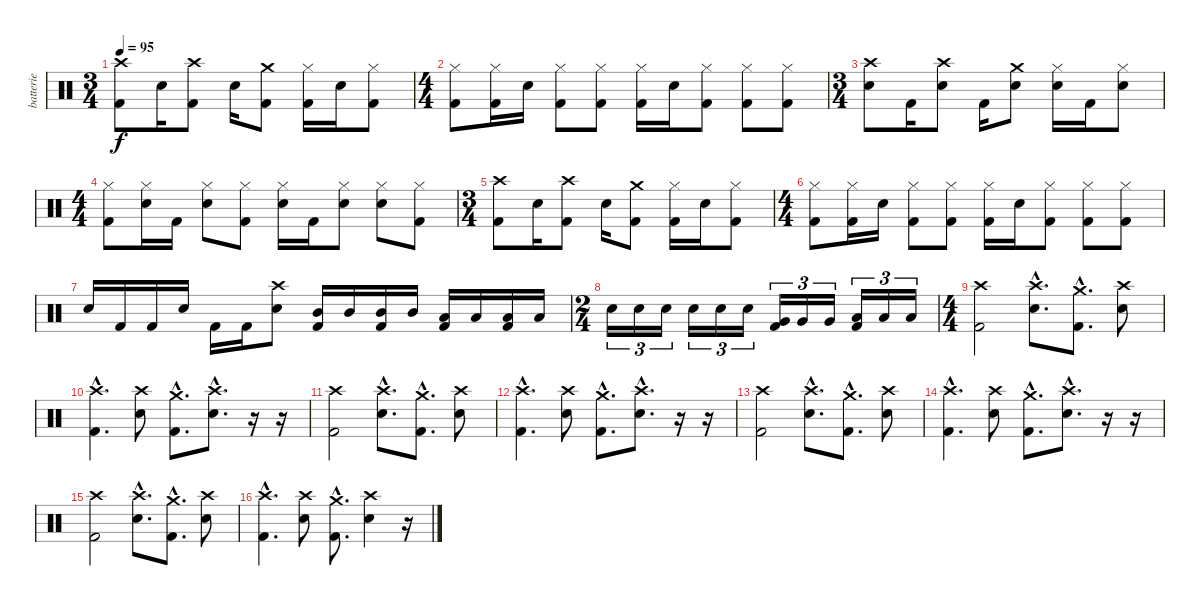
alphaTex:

\track ("batterie" "batterie") {instrument percussion}
\staff {score}
\articulation defaults
\ts (3 4)
\tempo 95
\clef neutral
\ks c
("Crash high (hit)" "Kick (hit) 2").8{dy f} "Snare (hit) 2".16 ("Crash high (hit)" "Kick (hit) 2").8 "Snare (hit) 2".16 ("Crash medium (hit)" "Kick (hit) 2").8 ("Kick (hit) 2" "Hi-Hat (closed)").16 "Snare (hit) 2".16 ("Kick (hit) 2" "Hi-Hat (closed)").8 |
\ts (4 4)
("Kick (hit) 2" "Hi-Hat (closed)").8 ("Kick (hit) 2" "Hi-Hat (closed)").16 "Snare (hit) 2".16 ("Kick (hit) 2" "Hi-Hat (closed)").8 ("Kick (hit) 2" "Hi-Hat (closed)").8 ("Kick (hit) 2" "Hi-Hat (closed)").16 "Snare (hit) 2".16 ("Kick (hit) 2" "Hi-Hat (closed)").8 ("Kick (hit) 2" "Hi-Hat (closed)").8 ("Kick (hit) 2" "Hi-Hat (closed)").8 |
\ts (3 4)
("Crash high (hit)" "Snare (hit) 2").8 "Kick (hit) 2".16 ("Crash high (hit)" "Snare (hit) 2").8 "Kick (hit) 2".16 ("Crash medium (hit)" "Snare (hit) 2").8 ("Snare (hit) 2" "Hi-Hat (closed)").16 "Kick (hit) 2".16 ("Snare (hit) 2" "Hi-Hat (closed)").8 |
\ts (4 4)
("Kick (hit) 2" "Hi-Hat (closed)").8 ("Snare (hit) 2" "Hi-Hat (closed)").16 "Kick (hit) 2".16 ("Snare (hit) 2" "Hi-Hat (closed)").8 ("Kick (hit) 2" "Hi-Hat (closed)").8 ("Snare (hit) 2" "Hi-Hat (closed)").16 "Kick (hit) 2".16 ("Snare (hit) 2" "Hi-Hat (closed)").8 ("Snare (hit) 2" "Hi-Hat (closed)").8 ("Kick (hit) 2" "Hi-Hat (closed)").8 |
\ts (3 4)
("Crash high (hit)" "Kick (hit) 2").8 "Snare (hit) 2".16 ("Crash high (hit)" "Kick (hit) 2").8 "Snare (hit) 2".16 ("Crash medium (hit)" "Kick (hit) 2").8 ("Kick (hit) 2" "Hi-Hat (closed)").16 "Snare (hit) 2".16 ("Kick (hit) 2" "Hi-Hat (closed)").8 |
\ts (4 4)
("Kick (hit) 2" "Hi-Hat (closed)").8 ("Kick (hit) 2" "Hi-Hat (closed)").16 "Snare (hit) 2".16 ("Kick (hit) 2" "Hi-Hat (closed)").8 ("Kick (hit) 2" "Hi-Hat (closed)").8 ("Kick (hit) 2" "Hi-Hat (closed)").16 "Snare (hit) 2".16 ("Kick (hit) 2" "Hi-Hat (closed)").8 ("Kick (hit) 2" "Hi-Hat (closed)").8 ("Kick (hit) 2" "Hi-Hat (closed)").8 |
"Snare (hit) 2".16 "Kick (hit) 2".16 "Kick (hit) 2".16 "Snare (hit) 2".16 "Kick (hit) 2".16 "Kick (hit) 2".16 ("Crash high (hit)" "Snare (hit) 2").8 ("Mid Tom (hit)" "Kick (hit) 2").16 "Mid Tom (hit)".16 ("Mid Tom (hit)" "Kick (hit) 2").16 "Mid Tom (hit)".16 ("Low Tom (hit)" "Kick (hit) 2").16 "Low Tom (hit)".16 ("Low Tom (hit)" "Kick (hit) 2").16 "Low Tom (hit)".16 |
\ts (2 4)
"Snare (hit) 2".16{tu (3 2)} "Snare (hit) 2".16{tu (3 2)} "Snare (hit) 2".16{tu (3 2)} "Snare (hit) 2".16{tu (3 2)} "Snare (hit) 2".16{tu (3 2)} "Snare (hit) 2".16{tu (3 2)} ("Very Low Tom (hit)" "Kick (hit) 2").16{tu (3 2)} "Very Low Tom (hit)".16{tu (3 2)} "Very Low Tom (hit)".16{tu (3 2)} ("Low Tom (hit)" "Kick (hit) 2").16{tu (3 2)} "Low Tom (hit)".16{tu (3 2)} "Low Tom (hit)".16{tu (3 2)} |
\ts (4 4)
("Crash high (hit)" "Kick (hit) 2").2 ("Crash high (hit)"{hac} "Electric Snare (hit)"{hac}).8{d} ("Crash medium (hit)"{hac} "Kick (hit) 2"{hac}).8{d} ("Crash high (hit)" "Electric Snare (hit)").8 |
("Crash high (hit)"{hac} "Kick (hit) 2"{hac}).4{d} ("Crash high (hit)" "Electric Snare (hit)").8 ("Crash medium (hit)"{hac} "Kick (hit) 2"{hac}).8{d} ("Crash high (hit)"{hac} "Electric Snare (hit)"{hac}).8{d} r.16 r.16 |
("Crash high (hit)" "Kick (hit) 2").2 ("Crash high (hit)"{hac} "Electric Snare (hit)"{hac}).8{d} ("Crash medium (hit)"{hac} "Kick (hit) 2"{hac}).8{d} ("Crash high (hit)" "Electric Snare (hit)").8 |
("Crash high (hit)"{hac} "Kick (hit) 2"{hac}).4{d} ("Crash high (hit)" "Electric Snare (hit)").8 ("Crash medium (hit)"{hac} "Kick (hit) 2"{hac}).8{d} ("Crash high (hit)"{hac} "Electric Snare (hit)"{hac}).8{d} r.16 r.16 |
("Crash high (hit)" "Kick (hit) 2").2 ("Crash high (hit)"{hac} "Electric Snare (hit)"{hac}).8{d} ("Crash medium (hit)"{hac} "Kick (hit) 2"{hac}).8{d} ("Crash high (hit)" "Electric Snare (hit)").8 |
("Crash high (hit)"{hac} "Kick (hit) 2"{hac}).4{d} ("Crash high (hit)" "Electric Snare (hit)").8 ("Crash medium (hit)"{hac} "Kick (hit) 2"{hac}).8{d} ("Crash high (hit)"{hac} "Electric Snare (hit)"{hac}).8{d} r.16 r.16 |
("Crash high (hit)" "Kick (hit) 2").2 ("Crash high (hit)"{hac} "Electric Snare (hit)"{hac}).8{d} ("Crash medium (hit)"{hac} "Kick (hit) 2"{hac}).8{d} ("Crash high (hit)" "Electric Snare (hit)").8 |
("Crash high (hit)"{hac} "Kick (hit) 2"{hac}).4{d} ("Crash high (hit)" "Electric Snare (hit)").8 ("Crash medium (hit)"{hac} "Kick (hit) 2"{hac}).8{d} ("Crash high (hit)" "Electric Snare (hit)").4 r.16
